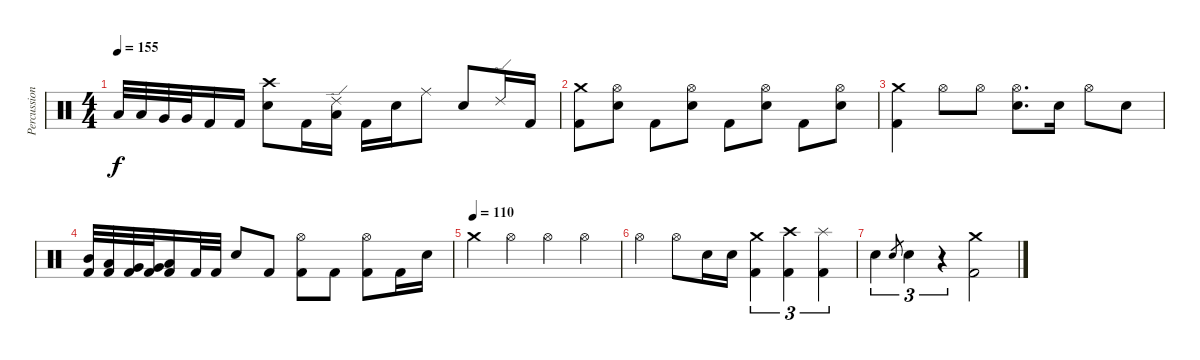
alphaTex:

\track ("Percussion" "Percussion") {instrument percussion}
\staff {score}
\articulation defaults
\ts (4 4)
\tempo 155
\clef neutral
\ks c "Low Tom (hit)".32{dy f} "Low Tom (hit)".32 "Very Low Tom (hit)".32 "Very Low Tom (hit)".32 "Kick (hit) 2".16 "Kick (hit) 2".16
("Crash high (hit)" "Electric Snare (hit)").8 "Kick (hit) 2".16 ("Ride (edge) 2" "Low Floor Tom (hit)").16 "Kick (hit) 2".16 "Electric Snare (hit)".16 "Ride (middle)".8 "Electric Snare (hit)".8 "Ride (edge) 2".16 "Kick (hit) 2".16 |
("Crash medium (hit)" "Kick (hit) 2").8 ("Hi-Hat (open)" "Electric Snare (hit)").8 "Kick (hit) 2".8 ("Hi-Hat (open)" "Electric Snare (hit)").8 "Kick (hit) 2".8 ("Hi-Hat (open)" "Electric Snare (hit)").8 "Kick (hit) 2".8 ("Hi-Hat (open)" "Electric Snare (hit)").8 |
("Crash medium (hit)" "Kick (hit) 2").4 "Hi-Hat (open)".8 "Hi-Hat (open)".8 ("Hi-Hat (open)" "Electric Snare (hit)").8{d} "Electric Snare (hit)".16 "Hi-Hat (open)".8 "Electric Snare (hit)".8 |
("Mid Tom (hit)" "Kick (hit) 2").32 ("Low Tom (hit)" "Kick (hit) 2").32 ("Very Low Tom (hit)" "Kick (hit) 2").32 ("Very Low Tom (hit)" "Kick (hit) 2").32 ("Low Floor Tom (hit)" "Kick (hit) 2").16 "Kick (hit) 2".32 "Kick (hit) 2".32 "Electric Snare (hit)".8 "Kick (hit) 2".8 ("Hi-Hat (open)" "Kick (hit) 2").8 "Kick (hit) 2".8 ("Hi-Hat (open)" "Kick (hit) 2").8 "Kick (hit) 2".16 "Electric Snare (hit)".16 |
\tempo (110)
"Crash medium (hit)".4 "Hi-Hat (open)".4 "Hi-Hat (open)".4 "Hi-Hat (open)".4 |
"Hi-Hat (open)".4 "Hi-Hat (open)".8 "Electric Snare (hit)".16 "Electric Snare (hit)".16 ("Crash medium (hit)" "Kick (hit) 2").4{tu (3 2)} ("Crash high (hit)" "Kick (hit) 2").4{tu (3 2)} ("Splash (hit)" "Kick (hit) 2").4{tu (3 2)} |
"Electric Snare (hit)".4{tu (3 2)} "Electric Snare (hit)".8{gr} "Electric Snare (hit)".4{tu (3 2)} r.4{tu (3 2)} ("Crash medium (hit)" "Kick (hit) 2").2
